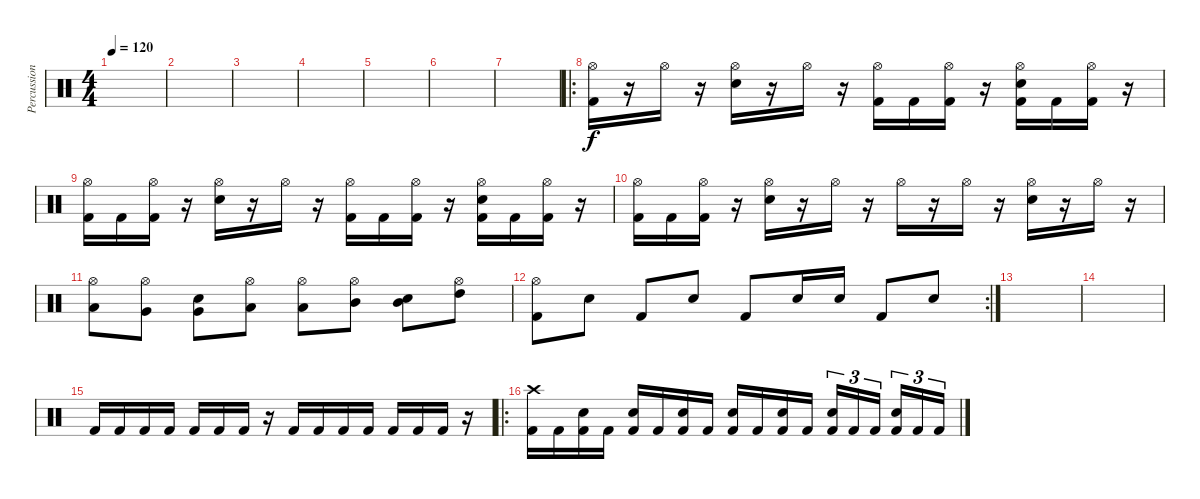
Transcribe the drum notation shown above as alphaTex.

\track ("Percussion" "Percussion") {instrument percussion}
\staff {score}
\articulation defaults
\ts (4 4)
\tempo 120
\clef neutral
\ks c
|
|
|
|
|
|
|
\ro
("Hi-Hat (open)" "Kick (hit) 2").16 r.16 "Hi-Hat (open)".16 r.16 ("Hi-Hat (open)" "Electric Snare (hit)").16 r.16 "Hi-Hat (open)".16 r.16 ("Hi-Hat (open)" "Kick (hit) 2").16 "Kick (hit) 2".16 ("Hi-Hat (open)" "Kick (hit) 2").16 r.16 ("Hi-Hat (open)" "Kick (hit) 2" "Electric Snare (hit)").16 "Kick (hit) 2".16 ("Hi-Hat (open)" "Kick (hit) 2").16 r.16 |
("Hi-Hat (open)" "Kick (hit) 2").16 "Kick (hit) 2".16 ("Hi-Hat (open)" "Kick (hit) 2").16 r.16 ("Hi-Hat (open)" "Electric Snare (hit)").16 r.16 "Hi-Hat (open)".16 r.16 ("Hi-Hat (open)" "Kick (hit) 2").16 "Kick (hit) 2".16 ("Hi-Hat (open)" "Kick (hit) 2").16 r.16 ("Hi-Hat (open)" "Kick (hit) 2" "Electric Snare (hit)").16 "Kick (hit) 2".16 ("Hi-Hat (open)" "Kick (hit) 2").16 r.16 |
("Hi-Hat (open)" "Kick (hit) 2").16 "Kick (hit) 2".16 ("Hi-Hat (open)" "Kick (hit) 2").16 r.16 ("Hi-Hat (open)" "Electric Snare (hit)").16 r.16 "Hi-Hat (open)".16 r.16 "Hi-Hat (open)".16 r.16 "Hi-Hat (open)".16 r.16 ("Hi-Hat (open)" "Electric Snare (hit)").16 r.16 "Hi-Hat (open)".16 r.16 |
("Hi-Hat (open)" "Low Floor Tom (hit)").8 ("Hi-Hat (open)" "Very Low Tom (hit)").8 ("Electric Snare (hit)" "Very Low Tom (hit)").8 ("Hi-Hat (open)" "Low Tom (hit)").8 ("Hi-Hat (open)" "Low Tom (hit)").8 ("Hi-Hat (open)" "Mid Tom (hit)").8 ("Electric Snare (hit)" "Mid Tom (hit)").8 ("Hi-Hat (open)" "High Tom (hit)").8 |
\rc 2
("Hi-Hat (open)" "Kick (hit) 2").8 "Electric Snare (hit)".8 "Kick (hit) 2".8 "Electric Snare (hit)".8 "Kick (hit) 2".8 "Electric Snare (hit)".16 "Electric Snare (hit)".16 "Kick (hit) 2".8 "Electric Snare (hit)".8 |
|
|
"Kick (hit) 2".16 "Kick (hit) 2".16 "Kick (hit) 2".16 "Kick (hit) 2".16 "Kick (hit) 2".16 "Kick (hit) 2".16 "Kick (hit) 2".16 r.16 "Kick (hit) 2".16 "Kick (hit) 2".16 "Kick (hit) 2".16 "Kick (hit) 2".16 "Kick (hit) 2".16 "Kick (hit) 2".16 "Kick (hit) 2".16 r.16 |
\ro
("Crash high (hit)" "Kick (hit) 2").16 "Kick (hit) 2".16 ("Electric Snare (hit)" "Kick (hit) 2").16 "Kick (hit) 2".16 ("Electric Snare (hit)" "Kick (hit) 2").16 "Kick (hit) 2".16 ("Electric Snare (hit)" "Kick (hit) 2").16 "Kick (hit) 2".16 ("Electric Snare (hit)" "Kick (hit) 2").16 "Kick (hit) 2".16 ("Electric Snare (hit)" "Kick (hit) 2").16 "Kick (hit) 2".16 ("Electric Snare (hit)" "Kick (hit) 2").16{tu (3 2)} "Kick (hit) 2".16{tu (3 2)} "Kick (hit) 2".16{tu (3 2)} ("Electric Snare (hit)" "Kick (hit) 2").16{tu (3 2)} "Kick (hit) 2".16{tu (3 2)} "Kick (hit) 2".16{tu (3 2)}
